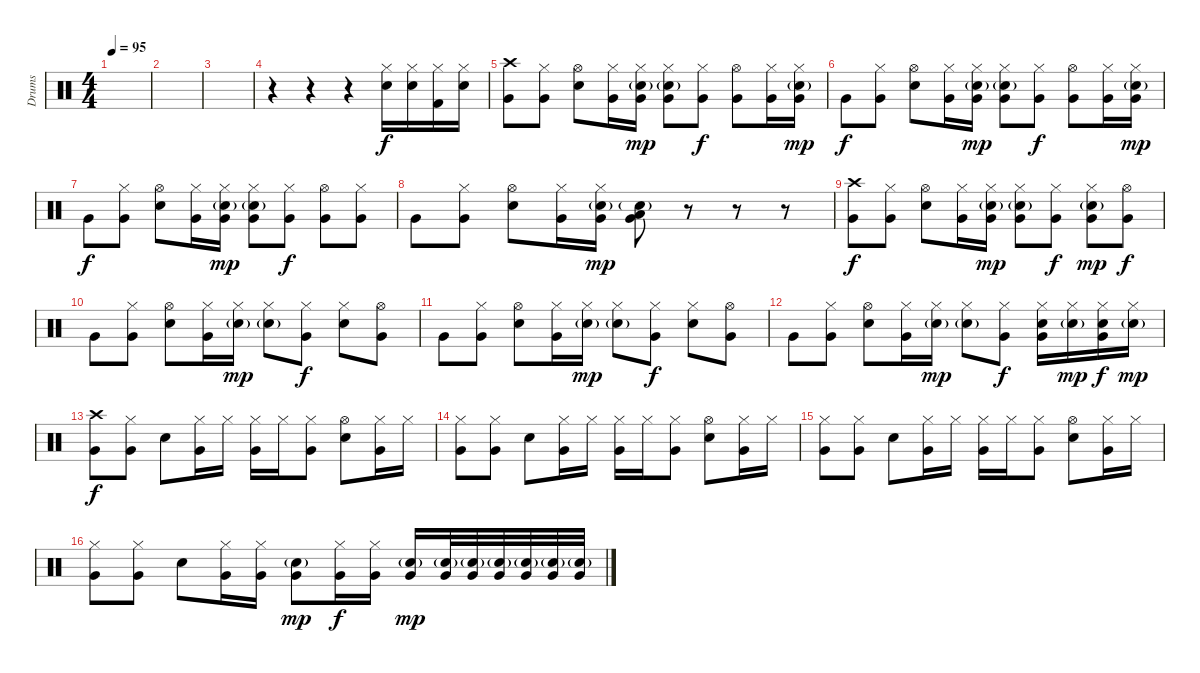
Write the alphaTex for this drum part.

\track ("Drums" "Drums") {instrument percussion}
\staff {score}
\articulation defaults
\ts (4 4)
\tempo 95
\clef neutral
\ks c
|
|
|
r.4 r.4 r.4 ("Hi-Hat (closed)" "Electric Snare (hit)").16{dy f} ("Hi-Hat (closed)" "Electric Snare (hit)").16 ("Hi-Hat (closed)" "Kick (hit) 2").16 ("Hi-Hat (closed)" "Electric Snare (hit)").16 |
("Crash high (hit)" "Very Low Tom (hit)").8 ("Hi-Hat (closed)" "Very Low Tom (hit)").8 ("Hi-Hat (open)" "Electric Snare (hit)").8 ("Hi-Hat (closed)" "Very Low Tom (hit)").16 ("Hi-Hat (closed)" "Very Low Tom (hit)" "Electric Snare (hit)"{g}).16{dy mp} ("Hi-Hat (closed)" "Very Low Tom (hit)" "Electric Snare (hit)"{g}).8 ("Hi-Hat (closed)" "Very Low Tom (hit)").8{dy f} ("Hi-Hat (open)" "Very Low Tom (hit)").8 ("Hi-Hat (closed)" "Very Low Tom (hit)").16 ("Hi-Hat (closed)" "Very Low Tom (hit)" "Electric Snare (hit)"{g}).16{dy mp} |
"Very Low Tom (hit)".8{dy f} ("Hi-Hat (closed)" "Very Low Tom (hit)").8 ("Hi-Hat (open)" "Electric Snare (hit)").8 ("Hi-Hat (closed)" "Very Low Tom (hit)").16 ("Hi-Hat (closed)" "Very Low Tom (hit)" "Electric Snare (hit)"{g}).16{dy mp} ("Hi-Hat (closed)" "Very Low Tom (hit)" "Electric Snare (hit)"{g}).8 ("Hi-Hat (closed)" "Very Low Tom (hit)").8{dy f} ("Hi-Hat (open)" "Very Low Tom (hit)").8 ("Hi-Hat (closed)" "Very Low Tom (hit)").16 ("Hi-Hat (closed)" "Very Low Tom (hit)" "Electric Snare (hit)"{g}).16{dy mp} |
"Very Low Tom (hit)".8{dy f} ("Hi-Hat (closed)" "Very Low Tom (hit)").8 ("Hi-Hat (open)" "Electric Snare (hit)").8 ("Hi-Hat (closed)" "Very Low Tom (hit)").16 ("Hi-Hat (closed)" "Very Low Tom (hit)" "Electric Snare (hit)"{g}).16{dy mp} ("Hi-Hat (closed)" "Very Low Tom (hit)" "Electric Snare (hit)"{g}).8 ("Hi-Hat (closed)" "Very Low Tom (hit)").8{dy f} ("Hi-Hat (open)" "Very Low Tom (hit)").8 ("Hi-Hat (closed)" "Very Low Tom (hit)").8 |
"Very Low Tom (hit)".8 ("Hi-Hat (closed)" "Very Low Tom (hit)").8 ("Hi-Hat (open)" "Electric Snare (hit)").8 ("Hi-Hat (closed)" "Very Low Tom (hit)").16 ("Hi-Hat (closed)" "Very Low Tom (hit)" "Electric Snare (hit)"{g}).16{dy mp} ("Very Low Tom (hit)" "Low Tom (hit)" "Electric Snare (hit)"{g}).8 r.8 r.8 r.8 |
("Crash high (hit)" "Very Low Tom (hit)").8{dy f} ("Hi-Hat (closed)" "Very Low Tom (hit)").8 ("Hi-Hat (open)" "Electric Snare (hit)").8 ("Hi-Hat (closed)" "Very Low Tom (hit)").16 ("Hi-Hat (closed)" "Very Low Tom (hit)" "Electric Snare (hit)"{g}).16{dy mp} ("Hi-Hat (closed)" "Very Low Tom (hit)" "Electric Snare (hit)"{g}).8 ("Hi-Hat (closed)" "Very Low Tom (hit)").8{dy f} ("Hi-Hat (closed)" "Very Low Tom (hit)" "Electric Snare (hit)"{g}).8{dy mp} ("Hi-Hat (open)" "Very Low Tom (hit)").8{dy f} |
"Very Low Tom (hit)".8 ("Hi-Hat (closed)" "Very Low Tom (hit)").8 ("Hi-Hat (open)" "Electric Snare (hit)").8 ("Hi-Hat (closed)" "Very Low Tom (hit)").16 ("Hi-Hat (closed)" "Electric Snare (hit)"{g}).16{dy mp} ("Hi-Hat (closed)" "Electric Snare (hit)"{g}).8 ("Hi-Hat (closed)" "Very Low Tom (hit)").8{dy f} ("Hi-Hat (closed)" "Electric Snare (hit)").8 ("Hi-Hat (open)" "Very Low Tom (hit)").8 |
"Very Low Tom (hit)".8 ("Hi-Hat (closed)" "Very Low Tom (hit)").8 ("Hi-Hat (open)" "Electric Snare (hit)").8 ("Hi-Hat (closed)" "Very Low Tom (hit)").16 ("Hi-Hat (closed)" "Electric Snare (hit)"{g}).16{dy mp} ("Hi-Hat (closed)" "Electric Snare (hit)"{g}).8 ("Hi-Hat (closed)" "Very Low Tom (hit)").8{dy f} ("Hi-Hat (closed)" "Electric Snare (hit)").8 ("Hi-Hat (open)" "Very Low Tom (hit)").8 |
"Very Low Tom (hit)".8 ("Hi-Hat (closed)" "Very Low Tom (hit)").8 ("Hi-Hat (open)" "Electric Snare (hit)").8 ("Hi-Hat (closed)" "Very Low Tom (hit)").16 ("Hi-Hat (closed)" "Electric Snare (hit)"{g}).16{dy mp} ("Hi-Hat (closed)" "Electric Snare (hit)"{g}).8 ("Hi-Hat (closed)" "Very Low Tom (hit)").8{dy f} ("Hi-Hat (closed)" "Very Low Tom (hit)" "Electric Snare (hit)").16 ("Hi-Hat (closed)" "Electric Snare (hit)"{g}).16{dy mp} ("Hi-Hat (closed)" "Very Low Tom (hit)" "Electric Snare (hit)").16{dy f} ("Hi-Hat (closed)" "Electric Snare (hit)"{g}).16{dy mp} |
("Crash high (hit)" "Very Low Tom (hit)").8{dy f} ("Hi-Hat (closed)" "Very Low Tom (hit)").8 "Electric Snare (hit)".8 ("Hi-Hat (closed)" "Very Low Tom (hit)").16 "Hi-Hat (closed)".16 ("Hi-Hat (closed)" "Very Low Tom (hit)").16 "Hi-Hat (closed)".16 ("Hi-Hat (closed)" "Very Low Tom (hit)").8 ("Hi-Hat (open)" "Electric Snare (hit)").8 ("Hi-Hat (closed)" "Very Low Tom (hit)").16 "Hi-Hat (closed)".16 |
("Hi-Hat (closed)" "Very Low Tom (hit)").8 ("Hi-Hat (closed)" "Very Low Tom (hit)").8 "Electric Snare (hit)".8 ("Hi-Hat (closed)" "Very Low Tom (hit)").16 "Hi-Hat (closed)".16 ("Hi-Hat (closed)" "Very Low Tom (hit)").16 "Hi-Hat (closed)".16 ("Hi-Hat (closed)" "Very Low Tom (hit)").8 ("Hi-Hat (open)" "Electric Snare (hit)").8 ("Hi-Hat (closed)" "Very Low Tom (hit)").16 "Hi-Hat (closed)".16 |
("Hi-Hat (closed)" "Very Low Tom (hit)").8 ("Hi-Hat (closed)" "Very Low Tom (hit)").8 "Electric Snare (hit)".8 ("Hi-Hat (closed)" "Very Low Tom (hit)").16 "Hi-Hat (closed)".16 ("Hi-Hat (closed)" "Very Low Tom (hit)").16 "Hi-Hat (closed)".16 ("Hi-Hat (closed)" "Very Low Tom (hit)").8 ("Hi-Hat (open)" "Electric Snare (hit)").8 ("Hi-Hat (closed)" "Very Low Tom (hit)").16 "Hi-Hat (closed)".16 |
("Hi-Hat (closed)" "Very Low Tom (hit)").8 ("Hi-Hat (closed)" "Very Low Tom (hit)").8 "Electric Snare (hit)".8 ("Hi-Hat (closed)" "Very Low Tom (hit)").16 ("Hi-Hat (closed)" "Very Low Tom (hit)").16 ("Very Low Tom (hit)" "Electric Snare (hit)"{g}).8{dy mp} ("Hi-Hat (closed)" "Very Low Tom (hit)").16{dy f} ("Hi-Hat (closed)" "Very Low Tom (hit)").16 ("Very Low Tom (hit)" "Electric Snare (hit)"{g}).16{dy mp} ("Very Low Tom (hit)" "Electric Snare (hit)"{g}).32 ("Very Low Tom (hit)" "Electric Snare (hit)"{g}).32 ("Very Low Tom (hit)" "Electric Snare (hit)"{g}).32 ("Very Low Tom (hit)" "Electric Snare (hit)"{g}).32 ("Very Low Tom (hit)" "Electric Snare (hit)"{g}).32 ("Very Low Tom (hit)" "Electric Snare (hit)"{g}).32
